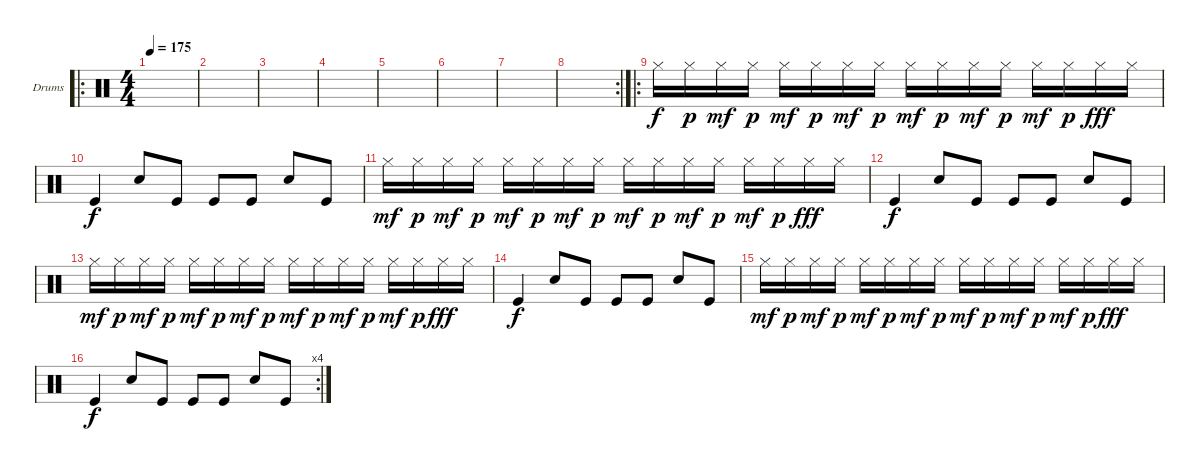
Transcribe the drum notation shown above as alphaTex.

\defaultSystemsLayout 4
\bracketExtendMode groupsimilarinstruments
\firstSystemTrackNameOrientation horizontal
\otherSystemsTrackNameOrientation horizontal
\track ("Drumkit" "Drums") {instrument percussion}
\staff {score}
\articulation defaults
\ro
\ts (4 4)
\tempo 175
\clef neutral
\scale
0.502222
\ks c
|
\scale
0.248889 |
\scale
0.248889 |
\scale
0.333333 |
\scale
0.333333 |
\scale
0.333333 |
\scale
0.301075 |
\rc 2
\scale
0.333333 |
\ro
\scale
0.365591 "Hi-Hat (closed)".16 "Hi-Hat (closed)".16{dy p} "Hi-Hat (closed)".16{dy mf} "Hi-Hat (closed)".16{dy p} "Hi-Hat (closed)".16{dy mf} "Hi-Hat (closed)".16{dy p} "Hi-Hat (closed)".16{dy mf} "Hi-Hat (closed)".16{dy p} "Hi-Hat (closed)".16{dy mf} "Hi-Hat (closed)".16{dy p} "Hi-Hat (closed)".16{dy mf} "Hi-Hat (closed)".16{dy p} "Hi-Hat (closed)".16{dy mf} "Hi-Hat (closed)".16{dy p} "Hi-Hat (closed)".16{dy fff} "Hi-Hat (closed)".16 |
\scale
0.333333 "Kick (hit)".4{dy f} "Snare (hit) 2".8 "Kick (hit)".8 "Kick (hit)".8 "Kick (hit)".8 "Snare (hit) 2".8 "Kick (hit)".8 |
\scale
0.333333 "Hi-Hat (closed)".16{dy mf} "Hi-Hat (closed)".16{dy p} "Hi-Hat (closed)".16{dy mf} "Hi-Hat (closed)".16{dy p} "Hi-Hat (closed)".16{dy mf} "Hi-Hat (closed)".16{dy p} "Hi-Hat (closed)".16{dy mf} "Hi-Hat (closed)".16{dy p} "Hi-Hat (closed)".16{dy mf} "Hi-Hat (closed)".16{dy p} "Hi-Hat (closed)".16{dy mf} "Hi-Hat (closed)".16{dy p} "Hi-Hat (closed)".16{dy mf} "Hi-Hat (closed)".16{dy p} "Hi-Hat (closed)".16{dy fff} "Hi-Hat (closed)".16 |
\scale
0.333333 "Kick (hit)".4{dy f} "Snare (hit) 2".8 "Kick (hit)".8 "Kick (hit)".8 "Kick (hit)".8 "Snare (hit) 2".8 "Kick (hit)".8 |
\scale
0.333333 "Hi-Hat (closed)".16{dy mf} "Hi-Hat (closed)".16{dy p} "Hi-Hat (closed)".16{dy mf} "Hi-Hat (closed)".16{dy p} "Hi-Hat (closed)".16{dy mf} "Hi-Hat (closed)".16{dy p} "Hi-Hat (closed)".16{dy mf} "Hi-Hat (closed)".16{dy p} "Hi-Hat (closed)".16{dy mf} "Hi-Hat (closed)".16{dy p} "Hi-Hat (closed)".16{dy mf} "Hi-Hat (closed)".16{dy p} "Hi-Hat (closed)".16{dy mf} "Hi-Hat (closed)".16{dy p} "Hi-Hat (closed)".16{dy fff} "Hi-Hat (closed)".16 |
\scale
0.333333 "Kick (hit)".4{dy f} "Snare (hit) 2".8 "Kick (hit)".8 "Kick (hit)".8 "Kick (hit)".8 "Snare (hit) 2".8 "Kick (hit)".8 |
\scale
0.333333 "Hi-Hat (closed)".16{dy mf} "Hi-Hat (closed)".16{dy p} "Hi-Hat (closed)".16{dy mf} "Hi-Hat (closed)".16{dy p} "Hi-Hat (closed)".16{dy mf} "Hi-Hat (closed)".16{dy p} "Hi-Hat (closed)".16{dy mf} "Hi-Hat (closed)".16{dy p} "Hi-Hat (closed)".16{dy mf} "Hi-Hat (closed)".16{dy p} "Hi-Hat (closed)".16{dy mf} "Hi-Hat (closed)".16{dy p} "Hi-Hat (closed)".16{dy mf} "Hi-Hat (closed)".16{dy p} "Hi-Hat (closed)".16{dy fff} "Hi-Hat (closed)".16 |
\rc 4
\scale
0.333333 "Kick (hit)".4{dy f} "Snare (hit) 2".8 "Kick (hit)".8 "Kick (hit)".8 "Kick (hit)".8 "Snare (hit) 2".8 "Kick (hit)".8
